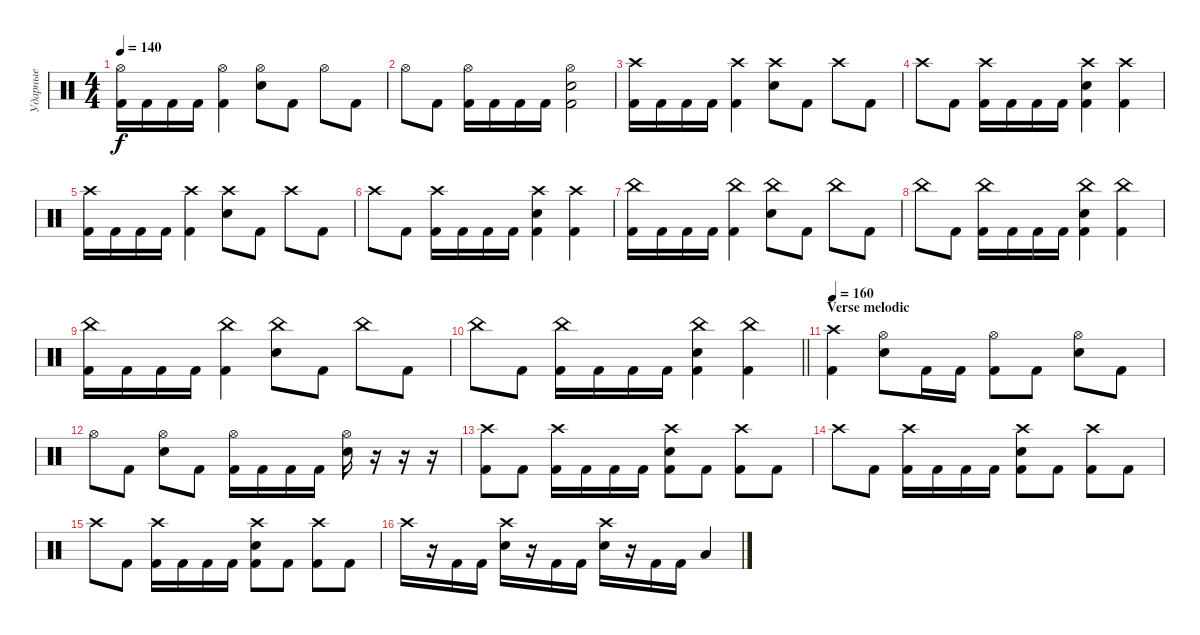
\track ("Ударные" "Ударные") {instrument percussion}
\staff {score}
\articulation defaults
\ts (4 4)
\tempo 140
\clef neutral
\ks c
("Hi-Hat (open)" "Kick (hit) 2").16{dy f} "Kick (hit) 2".16 "Kick (hit) 2".16 "Kick (hit) 2".16 ("Hi-Hat (open)" "Kick (hit) 2").4 ("Hi-Hat (open)" "Electric Snare (hit)").8 "Kick (hit) 2".8 "Hi-Hat (open)".8 "Kick (hit) 2".8 |
"Hi-Hat (open)".8 "Kick (hit) 2".8 ("Hi-Hat (open)" "Kick (hit) 2").16 "Kick (hit) 2".16 "Kick (hit) 2".16 "Kick (hit) 2".16 ("Hi-Hat (open)" "Electric Snare (hit)" "Kick (hit) 2").2 |
("Crash high (hit)" "Kick (hit) 2").16 "Kick (hit) 2".16 "Kick (hit) 2".16 "Kick (hit) 2".16 ("Crash high (hit)" "Kick (hit) 2").4 ("Crash high (hit)" "Electric Snare (hit)").8 "Kick (hit) 2".8 "Crash high (hit)".8 "Kick (hit) 2".8 |
"Crash high (hit)".8 "Kick (hit) 2".8 ("Crash high (hit)" "Kick (hit) 2").16 "Kick (hit) 2".16 "Kick (hit) 2".16 "Kick (hit) 2".16 ("Crash high (hit)" "Electric Snare (hit)" "Kick (hit) 2").4 ("Crash high (hit)" "Kick (hit) 2").4 |
("Crash high (hit)" "Kick (hit) 2").16 "Kick (hit) 2".16 "Kick (hit) 2".16 "Kick (hit) 2".16 ("Crash high (hit)" "Kick (hit) 2").4 ("Crash high (hit)" "Electric Snare (hit)").8 "Kick (hit) 2".8 "Crash high (hit)".8 "Kick (hit) 2".8 |
"Crash high (hit)".8 "Kick (hit) 2".8 ("Crash high (hit)" "Kick (hit) 2").16 "Kick (hit) 2".16 "Kick (hit) 2".16 "Kick (hit) 2".16 ("Crash high (hit)" "Electric Snare (hit)" "Kick (hit) 2").4 ("Crash high (hit)" "Kick (hit) 2").4 |
("China (hit)" "Kick (hit) 2").16 "Kick (hit) 2".16 "Kick (hit) 2".16 "Kick (hit) 2".16 ("China (hit)" "Kick (hit) 2").4 ("China (hit)" "Electric Snare (hit)").8 "Kick (hit) 2".8 "China (hit)".8 "Kick (hit) 2".8 |
"China (hit)".8 "Kick (hit) 2".8 ("China (hit)" "Kick (hit) 2").16 "Kick (hit) 2".16 "Kick (hit) 2".16 "Kick (hit) 2".16 ("China (hit)" "Electric Snare (hit)" "Kick (hit) 2").4 ("China (hit)" "Kick (hit) 2").4 |
("China (hit)" "Kick (hit) 2").16 "Kick (hit) 2".16 "Kick (hit) 2".16 "Kick (hit) 2".16 ("China (hit)" "Kick (hit) 2").4 ("China (hit)" "Electric Snare (hit)").8 "Kick (hit) 2".8 "China (hit)".8 "Kick (hit) 2".8 |
\barLineRight lightlight "China (hit)".8 "Kick (hit) 2".8
("China (hit)" "Kick (hit) 2").16 "Kick (hit) 2".16 "Kick (hit) 2".16 "Kick (hit) 2".16 ("China (hit)" "Electric Snare (hit)" "Kick (hit) 2").4 ("China (hit)" "Kick (hit) 2").4 |
\section ("" "Verse melodic")
\tempo 160
("Crash high (hit)" "Kick (hit) 2").4 ("Hi-Hat (open)" "Electric Snare (hit)").8 "Kick (hit) 2".16 "Kick (hit) 2".16 ("Hi-Hat (open)" "Kick (hit) 2").8 "Kick (hit) 2".8 ("Hi-Hat (open)" "Electric Snare (hit)").8 "Kick (hit) 2".8 |
"Hi-Hat (open)".8 "Kick (hit) 2".8 ("Hi-Hat (open)" "Electric Snare (hit)").8 "Kick (hit) 2".8 ("Hi-Hat (open)" "Kick (hit) 2").16 "Kick (hit) 2".16 "Kick (hit) 2".16 "Kick (hit) 2".16 ("Hi-Hat (open)" "Electric Snare (hit)").16 r.16 r.16 r.16 |
("Crash high (hit)" "Kick (hit) 2").8 "Kick (hit) 2".8 ("Crash high (hit)" "Kick (hit) 2").16 "Kick (hit) 2".16 "Kick (hit) 2".16 "Kick (hit) 2".16 ("Crash high (hit)" "Electric Snare (hit)" "Kick (hit) 2").8 "Kick (hit) 2".8 ("Crash high (hit)" "Kick (hit) 2").8 "Kick (hit) 2".8 |
"Crash high (hit)".8 "Kick (hit) 2".8 ("Crash high (hit)" "Kick (hit) 2").16 "Kick (hit) 2".16 "Kick (hit) 2".16 "Kick (hit) 2".16 ("Crash high (hit)" "Electric Snare (hit)" "Kick (hit) 2").8 "Kick (hit) 2".8 ("Crash high (hit)" "Kick (hit) 2").8 "Kick (hit) 2".8 |
"Crash high (hit)".8 "Kick (hit) 2".8 ("Crash high (hit)" "Kick (hit) 2").16 "Kick (hit) 2".16 "Kick (hit) 2".16 "Kick (hit) 2".16 ("Crash high (hit)" "Electric Snare (hit)" "Kick (hit) 2").8 "Kick (hit) 2".8 ("Crash high (hit)" "Kick (hit) 2").8 "Kick (hit) 2".8 |
"Crash high (hit)".16 r.16 "Kick (hit) 2".16 "Kick (hit) 2".16 ("Crash high (hit)" "Electric Snare (hit)").16 r.16 "Kick (hit) 2".16 "Kick (hit) 2".16 ("Crash high (hit)" "Electric Snare (hit)").16 r.16 "Kick (hit) 2".16 "Kick (hit) 2".16 "Low Tom (hit)".4
